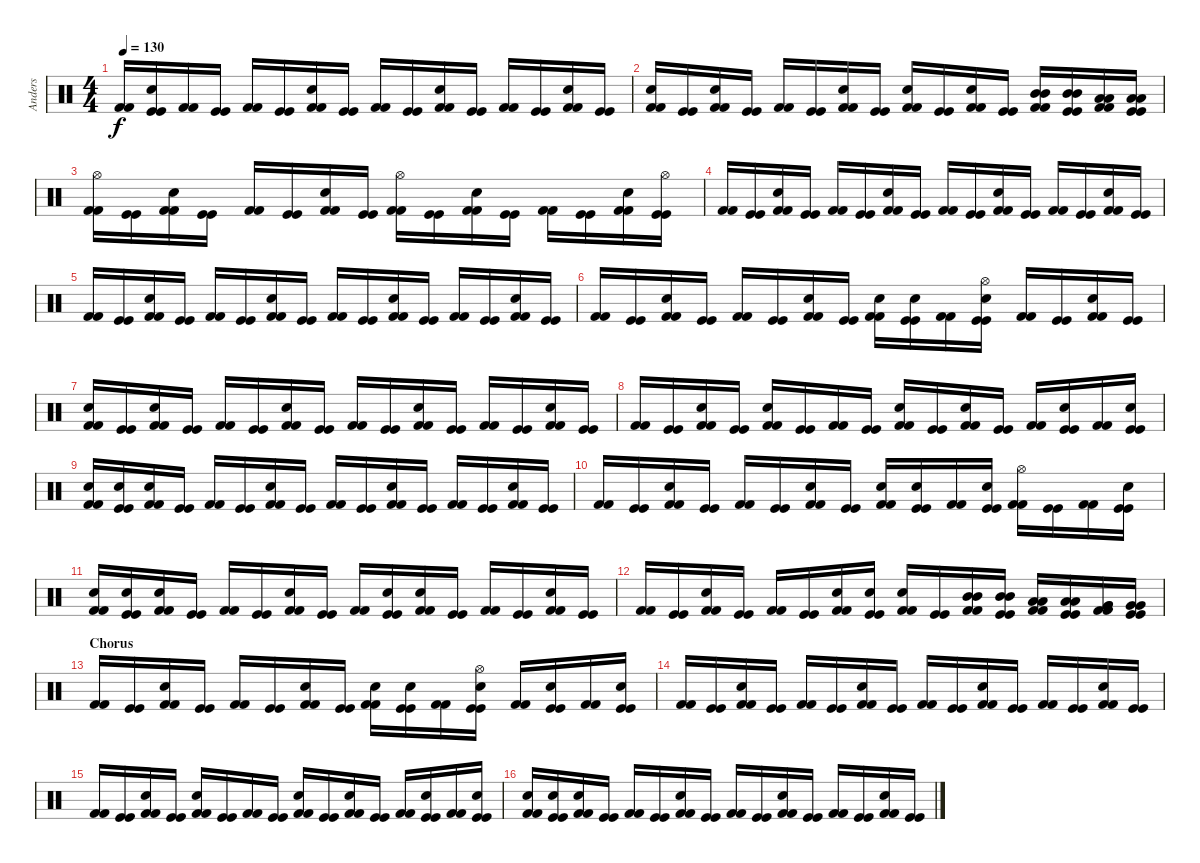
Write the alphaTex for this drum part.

\track ("Anders" "Anders") {instrument percussion}
\staff {score}
\articulation defaults
\ts (4 4)
\tempo 130
\clef neutral
\ks c
("Kick (hit) 2" "Kick (hit) 2").16{dy f} ("Snare (hit) 2" "Kick (hit)" "Kick (hit)").16 ("Kick (hit) 2" "Kick (hit) 2").16 ("Kick (hit)" "Kick (hit)").16 ("Kick (hit) 2" "Kick (hit) 2").16 ("Kick (hit)" "Kick (hit)").16 ("Snare (hit) 2" "Kick (hit) 2" "Kick (hit) 2").16 ("Kick (hit)" "Kick (hit)").16 ("Kick (hit) 2" "Kick (hit) 2").16 ("Kick (hit)" "Kick (hit)").16 ("Snare (hit) 2" "Kick (hit) 2" "Kick (hit) 2").16 ("Kick (hit)" "Kick (hit)").16 ("Kick (hit) 2" "Kick (hit) 2").16 ("Kick (hit)" "Kick (hit)").16 ("Snare (hit) 2" "Kick (hit) 2" "Kick (hit) 2").16 ("Kick (hit)" "Kick (hit)").16 |
("Snare (hit) 2" "Kick (hit) 2" "Kick (hit) 2").16 ("Kick (hit)" "Kick (hit)").16 ("Snare (hit) 2" "Kick (hit) 2" "Kick (hit) 2").16 ("Kick (hit)" "Kick (hit)").16 ("Kick (hit) 2" "Kick (hit) 2").16 ("Kick (hit)" "Kick (hit)").16 ("Snare (hit) 2" "Kick (hit) 2" "Kick (hit) 2").16 ("Kick (hit)" "Kick (hit)").16 ("Snare (hit) 2" "Kick (hit) 2" "Kick (hit) 2").16 ("Kick (hit)" "Kick (hit)").16 ("Snare (hit) 2" "Kick (hit) 2" "Kick (hit) 2").16 ("Kick (hit)" "Kick (hit)").16 ("Mid Tom (hit)" "Mid Tom (hit)" "Kick (hit) 2" "Kick (hit) 2").16 ("Mid Tom (hit)" "Mid Tom (hit)" "Kick (hit)" "Kick (hit)").16 ("Low Tom (hit)" "Low Tom (hit)" "Kick (hit) 2" "Kick (hit) 2").16 ("Low Tom (hit)" "Low Tom (hit)" "Kick (hit)" "Kick (hit)").16 |
("Hi-Hat (open)" "Kick (hit) 2" "Kick (hit) 2").16 ("Kick (hit)" "Kick (hit)").16 ("Snare (hit) 2" "Kick (hit) 2" "Kick (hit) 2").16 ("Kick (hit)" "Kick (hit)").16 ("Kick (hit) 2" "Kick (hit) 2").16 ("Kick (hit)" "Kick (hit)").16 ("Snare (hit) 2" "Kick (hit) 2" "Kick (hit) 2").16 ("Kick (hit)" "Kick (hit)").16 ("Hi-Hat (open)" "Kick (hit) 2" "Kick (hit) 2").16 ("Kick (hit)" "Kick (hit)").16 ("Snare (hit) 2" "Kick (hit) 2" "Kick (hit) 2").16 ("Kick (hit)" "Kick (hit)").16 ("Kick (hit) 2" "Kick (hit) 2").16 ("Kick (hit)" "Kick (hit)").16 ("Snare (hit) 2" "Kick (hit) 2" "Kick (hit) 2").16 ("Hi-Hat (open)" "Kick (hit)" "Kick (hit)").16 |
("Kick (hit) 2" "Kick (hit) 2").16 ("Kick (hit)" "Kick (hit)").16 ("Snare (hit) 2" "Kick (hit) 2" "Kick (hit) 2").16 ("Kick (hit)" "Kick (hit)").16 ("Kick (hit) 2" "Kick (hit) 2").16 ("Kick (hit)" "Kick (hit)").16 ("Snare (hit) 2" "Kick (hit) 2" "Kick (hit) 2").16 ("Kick (hit)" "Kick (hit)").16 ("Kick (hit) 2" "Kick (hit) 2").16 ("Kick (hit)" "Kick (hit)").16 ("Snare (hit) 2" "Kick (hit) 2" "Kick (hit) 2").16 ("Kick (hit)" "Kick (hit)").16 ("Kick (hit) 2" "Kick (hit) 2").16 ("Kick (hit)" "Kick (hit)").16 ("Snare (hit) 2" "Kick (hit) 2" "Kick (hit) 2").16 ("Kick (hit)" "Kick (hit)").16 |
("Kick (hit) 2" "Kick (hit) 2").16 ("Kick (hit)" "Kick (hit)").16 ("Snare (hit) 2" "Kick (hit) 2" "Kick (hit) 2").16 ("Kick (hit)" "Kick (hit)").16 ("Kick (hit) 2" "Kick (hit) 2").16 ("Kick (hit)" "Kick (hit)").16 ("Snare (hit) 2" "Kick (hit) 2" "Kick (hit) 2").16 ("Kick (hit)" "Kick (hit)").16 ("Kick (hit) 2" "Kick (hit) 2").16 ("Kick (hit)" "Kick (hit)").16 ("Snare (hit) 2" "Kick (hit) 2" "Kick (hit) 2").16 ("Kick (hit)" "Kick (hit)").16 ("Kick (hit) 2" "Kick (hit) 2").16 ("Kick (hit)" "Kick (hit)").16 ("Snare (hit) 2" "Kick (hit) 2" "Kick (hit) 2").16 ("Kick (hit)" "Kick (hit)").16 |
("Kick (hit) 2" "Kick (hit) 2").16 ("Kick (hit)" "Kick (hit)").16 ("Snare (hit) 2" "Kick (hit) 2" "Kick (hit) 2").16 ("Kick (hit)" "Kick (hit)").16 ("Kick (hit) 2" "Kick (hit) 2").16 ("Kick (hit)" "Kick (hit)").16 ("Snare (hit) 2" "Kick (hit) 2" "Kick (hit) 2").16 ("Kick (hit)" "Kick (hit)").16 ("Snare (hit) 2" "Kick (hit) 2" "Kick (hit) 2").16 ("Snare (hit) 2" "Kick (hit)" "Kick (hit)").16 ("Kick (hit) 2" "Kick (hit) 2").16 ("Hi-Hat (open)" "Snare (hit) 2" "Kick (hit)" "Kick (hit)").16 ("Kick (hit) 2" "Kick (hit) 2").16 ("Kick (hit)" "Kick (hit)").16 ("Snare (hit) 2" "Kick (hit) 2" "Kick (hit) 2").16 ("Kick (hit)" "Kick (hit)").16 |
("Snare (hit) 2" "Kick (hit) 2" "Kick (hit) 2").16 ("Kick (hit)" "Kick (hit)").16 ("Snare (hit) 2" "Kick (hit) 2" "Kick (hit) 2").16 ("Kick (hit)" "Kick (hit)").16 ("Kick (hit) 2" "Kick (hit) 2").16 ("Kick (hit)" "Kick (hit)").16 ("Snare (hit) 2" "Kick (hit) 2" "Kick (hit) 2").16 ("Kick (hit)" "Kick (hit)").16 ("Kick (hit) 2" "Kick (hit) 2").16 ("Kick (hit)" "Kick (hit)").16 ("Snare (hit) 2" "Kick (hit) 2" "Kick (hit) 2").16 ("Kick (hit)" "Kick (hit)").16 ("Kick (hit) 2" "Kick (hit) 2").16 ("Kick (hit)" "Kick (hit)").16 ("Snare (hit) 2" "Kick (hit) 2" "Kick (hit) 2").16 ("Kick (hit)" "Kick (hit)").16 |
("Kick (hit) 2" "Kick (hit) 2").16 ("Kick (hit)" "Kick (hit)").16 ("Snare (hit) 2" "Kick (hit) 2" "Kick (hit) 2").16 ("Kick (hit)" "Kick (hit)").16 ("Snare (hit) 2" "Kick (hit) 2" "Kick (hit) 2").16 ("Kick (hit)" "Kick (hit)").16 ("Kick (hit) 2" "Kick (hit) 2").16 ("Kick (hit)" "Kick (hit)").16 ("Snare (hit) 2" "Kick (hit) 2" "Kick (hit) 2").16 ("Kick (hit)" "Kick (hit)").16 ("Snare (hit) 2" "Kick (hit) 2" "Kick (hit) 2").16 ("Kick (hit)" "Kick (hit)").16 ("Kick (hit) 2" "Kick (hit) 2").16 ("Snare (hit) 2" "Kick (hit)" "Kick (hit)").16 ("Kick (hit) 2" "Kick (hit) 2").16 ("Snare (hit) 2" "Kick (hit)" "Kick (hit)").16 |
("Snare (hit) 2" "Kick (hit) 2" "Kick (hit) 2").16 ("Snare (hit) 2" "Kick (hit)" "Kick (hit)").16 ("Snare (hit) 2" "Kick (hit) 2" "Kick (hit) 2").16 ("Kick (hit)" "Kick (hit)").16 ("Kick (hit) 2" "Kick (hit) 2").16 ("Kick (hit)" "Kick (hit)").16 ("Snare (hit) 2" "Kick (hit) 2" "Kick (hit) 2").16 ("Kick (hit)" "Kick (hit)").16 ("Kick (hit) 2" "Kick (hit) 2").16 ("Kick (hit)" "Kick (hit)").16 ("Snare (hit) 2" "Kick (hit) 2" "Kick (hit) 2").16 ("Kick (hit)" "Kick (hit)").16 ("Kick (hit) 2" "Kick (hit) 2").16 ("Kick (hit)" "Kick (hit)").16 ("Snare (hit) 2" "Kick (hit) 2" "Kick (hit) 2").16 ("Kick (hit)" "Kick (hit)").16 |
("Kick (hit) 2" "Kick (hit) 2").16 ("Kick (hit)" "Kick (hit)").16 ("Snare (hit) 2" "Kick (hit) 2" "Kick (hit) 2").16 ("Kick (hit)" "Kick (hit)").16 ("Kick (hit) 2" "Kick (hit) 2").16 ("Kick (hit)" "Kick (hit)").16 ("Snare (hit) 2" "Kick (hit) 2" "Kick (hit) 2").16 ("Kick (hit)" "Kick (hit)").16 ("Snare (hit) 2" "Kick (hit) 2" "Kick (hit) 2").16 ("Snare (hit) 2" "Kick (hit)" "Kick (hit)").16 ("Kick (hit) 2" "Kick (hit) 2").16 ("Snare (hit) 2" "Kick (hit)" "Kick (hit)").16 ("Hi-Hat (open)" "Kick (hit) 2" "Kick (hit) 2").16 ("Kick (hit)" "Kick (hit)").16 ("Kick (hit) 2" "Kick (hit) 2").16 ("Snare (hit) 2" "Kick (hit)" "Kick (hit)").16 |
("Snare (hit) 2" "Kick (hit) 2" "Kick (hit) 2").16 ("Snare (hit) 2" "Kick (hit)" "Kick (hit)").16 ("Snare (hit) 2" "Kick (hit) 2" "Kick (hit) 2").16 ("Kick (hit)" "Kick (hit)").16 ("Kick (hit) 2" "Kick (hit) 2").16 ("Kick (hit)" "Kick (hit)").16 ("Snare (hit) 2" "Kick (hit) 2" "Kick (hit) 2").16 ("Kick (hit)" "Kick (hit)").16 ("Kick (hit) 2" "Kick (hit) 2").16 ("Snare (hit) 2" "Kick (hit)" "Kick (hit)").16 ("Snare (hit) 2" "Kick (hit) 2" "Kick (hit) 2").16 ("Kick (hit)" "Kick (hit)").16 ("Kick (hit) 2" "Kick (hit) 2").16 ("Kick (hit)" "Kick (hit)").16 ("Snare (hit) 2" "Kick (hit) 2" "Kick (hit) 2").16 ("Kick (hit)" "Kick (hit)").16 |
("Kick (hit) 2" "Kick (hit) 2").16 ("Kick (hit)" "Kick (hit)").16 ("Snare (hit) 2" "Kick (hit) 2" "Kick (hit) 2").16 ("Kick (hit)" "Kick (hit)").16 ("Kick (hit) 2" "Kick (hit) 2").16 ("Kick (hit)" "Kick (hit)").16 ("Snare (hit) 2" "Kick (hit) 2" "Kick (hit) 2").16 ("Snare (hit) 2" "Kick (hit)" "Kick (hit)").16 ("Snare (hit) 2" "Kick (hit) 2" "Kick (hit) 2").16 ("Kick (hit)" "Kick (hit)").16 ("Mid Tom (hit)" "Mid Tom (hit)" "Kick (hit) 2" "Kick (hit) 2").16 ("Mid Tom (hit)" "Mid Tom (hit)" "Kick (hit)" "Kick (hit)").16 ("Low Tom (hit)" "Low Tom (hit)" "Kick (hit) 2" "Kick (hit) 2").16 ("Low Tom (hit)" "Low Tom (hit)" "Kick (hit)" "Kick (hit)").16 ("Very Low Tom (hit)" "Very Low Tom (hit)" "Kick (hit) 2" "Kick (hit) 2").16 ("Very Low Tom (hit)" "Very Low Tom (hit)" "Kick (hit)" "Kick (hit)").16 |
\section ("" "Chorus")
("Kick (hit) 2" "Kick (hit) 2").16 ("Kick (hit)" "Kick (hit)").16 ("Snare (hit) 2" "Kick (hit) 2" "Kick (hit) 2").16 ("Kick (hit)" "Kick (hit)").16 ("Kick (hit) 2" "Kick (hit) 2").16 ("Kick (hit)" "Kick (hit)").16 ("Snare (hit) 2" "Kick (hit) 2" "Kick (hit) 2").16 ("Kick (hit)" "Kick (hit)").16 ("Snare (hit) 2" "Kick (hit) 2" "Kick (hit) 2").16 ("Snare (hit) 2" "Kick (hit)" "Kick (hit)").16 ("Kick (hit) 2" "Kick (hit) 2").16 ("Hi-Hat (open)" "Snare (hit) 2" "Kick (hit)" "Kick (hit)").16 ("Kick (hit) 2" "Kick (hit) 2").16 ("Snare (hit) 2" "Kick (hit)" "Kick (hit)").16 ("Kick (hit) 2" "Kick (hit) 2").16 ("Snare (hit) 2" "Kick (hit)" "Kick (hit)").16 |
("Kick (hit) 2" "Kick (hit) 2").16 ("Kick (hit)" "Kick (hit)").16 ("Snare (hit) 2" "Kick (hit) 2" "Kick (hit) 2").16 ("Kick (hit)" "Kick (hit)").16 ("Kick (hit) 2" "Kick (hit) 2").16 ("Kick (hit)" "Kick (hit)").16 ("Snare (hit) 2" "Kick (hit) 2" "Kick (hit) 2").16 ("Kick (hit)" "Kick (hit)").16 ("Kick (hit) 2" "Kick (hit) 2").16 ("Kick (hit)" "Kick (hit)").16 ("Snare (hit) 2" "Kick (hit) 2" "Kick (hit) 2").16 ("Kick (hit)" "Kick (hit)").16 ("Kick (hit) 2" "Kick (hit) 2").16 ("Kick (hit)" "Kick (hit)").16 ("Snare (hit) 2" "Kick (hit) 2" "Kick (hit) 2").16 ("Kick (hit)" "Kick (hit)").16 |
("Kick (hit) 2" "Kick (hit) 2").16 ("Kick (hit)" "Kick (hit)").16 ("Snare (hit) 2" "Kick (hit) 2" "Kick (hit) 2").16 ("Kick (hit)" "Kick (hit)").16 ("Snare (hit) 2" "Kick (hit) 2" "Kick (hit) 2").16 ("Kick (hit)" "Kick (hit)").16 ("Kick (hit) 2" "Kick (hit) 2").16 ("Kick (hit)" "Kick (hit)").16 ("Snare (hit) 2" "Kick (hit) 2" "Kick (hit) 2").16 ("Kick (hit)" "Kick (hit)").16 ("Snare (hit) 2" "Kick (hit) 2" "Kick (hit) 2").16 ("Kick (hit)" "Kick (hit)").16 ("Kick (hit) 2" "Kick (hit) 2").16 ("Snare (hit) 2" "Kick (hit)" "Kick (hit)").16 ("Kick (hit) 2" "Kick (hit) 2").16 ("Snare (hit) 2" "Kick (hit)" "Kick (hit)").16 |
("Snare (hit) 2" "Kick (hit) 2" "Kick (hit) 2").16 ("Snare (hit) 2" "Kick (hit)" "Kick (hit)").16 ("Snare (hit) 2" "Kick (hit) 2" "Kick (hit) 2").16 ("Kick (hit)" "Kick (hit)").16 ("Kick (hit) 2" "Kick (hit) 2").16 ("Kick (hit)" "Kick (hit)").16 ("Snare (hit) 2" "Kick (hit) 2" "Kick (hit) 2").16 ("Kick (hit)" "Kick (hit)").16 ("Kick (hit) 2" "Kick (hit) 2").16 ("Kick (hit)" "Kick (hit)").16 ("Snare (hit) 2" "Kick (hit) 2" "Kick (hit) 2").16 ("Kick (hit)" "Kick (hit)").16 ("Kick (hit) 2" "Kick (hit) 2").16 ("Kick (hit)" "Kick (hit)").16 ("Snare (hit) 2" "Kick (hit) 2" "Kick (hit) 2").16 ("Kick (hit)" "Kick (hit)").16
